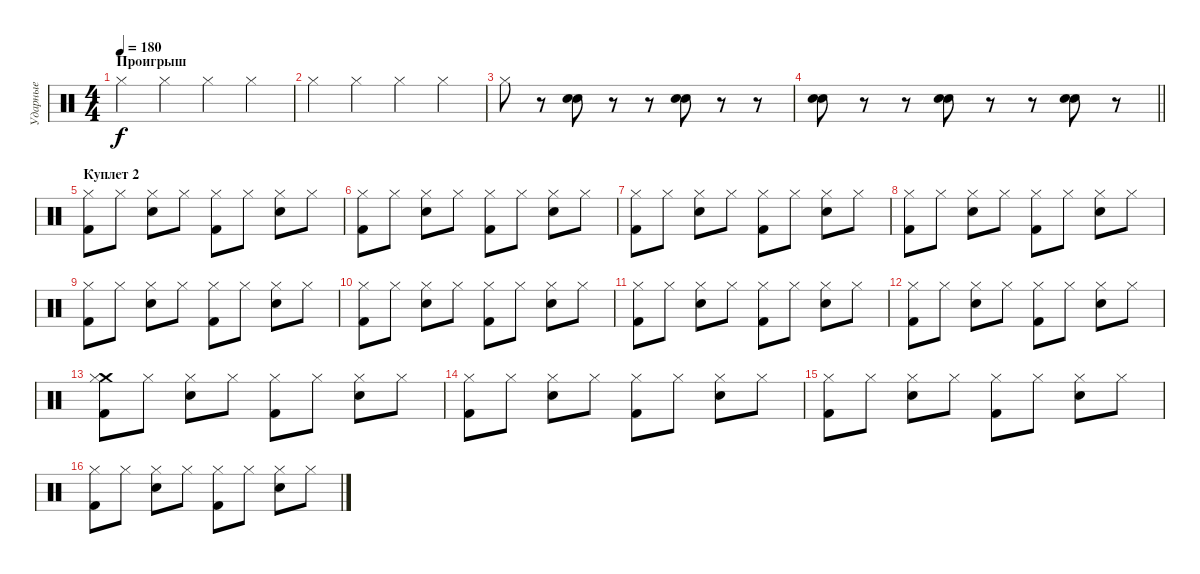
\track ("Ударные" "Ударные") {instrument percussion}
\staff {score}
\articulation defaults
\ts (4 4)
\section ("" "Проигрыш")
\tempo 180
\clef neutral
\ks c "Hi-Hat (closed)".4{dy f} "Hi-Hat (closed)".4 "Hi-Hat (closed)".4 "Hi-Hat (closed)".4
|
"Hi-Hat (closed)".4 "Hi-Hat (closed)".4 "Hi-Hat (closed)".4 "Hi-Hat (closed)".4 |
"Hi-Hat (closed)".8 r.8 ("Electric Snare (hit)" "Electric Snare (hit)").8 r.8 r.8 ("Electric Snare (hit)" "Electric Snare (hit)").8 r.8 r.8 |
\barLineRight lightlight
("Electric Snare (hit)" "Electric Snare (hit)").8 r.8 r.8 ("Electric Snare (hit)" "Electric Snare (hit)").8 r.8 r.8 ("Electric Snare (hit)" "Electric Snare (hit)").8 r.8 |
\section ("" "Куплет 2")
("Hi-Hat (closed)" "Kick (hit) 2").8 "Hi-Hat (closed)".8 ("Hi-Hat (closed)" "Electric Snare (hit)").8 "Hi-Hat (closed)".8 ("Hi-Hat (closed)" "Kick (hit) 2").8 "Hi-Hat (closed)".8 ("Hi-Hat (closed)" "Electric Snare (hit)").8 "Hi-Hat (closed)".8 |
("Hi-Hat (closed)" "Kick (hit) 2").8 "Hi-Hat (closed)".8 ("Hi-Hat (closed)" "Electric Snare (hit)").8 "Hi-Hat (closed)".8 ("Hi-Hat (closed)" "Kick (hit) 2").8 "Hi-Hat (closed)".8 ("Hi-Hat (closed)" "Electric Snare (hit)").8 "Hi-Hat (closed)".8 |
("Hi-Hat (closed)" "Kick (hit) 2").8 "Hi-Hat (closed)".8 ("Hi-Hat (closed)" "Electric Snare (hit)").8 "Hi-Hat (closed)".8 ("Hi-Hat (closed)" "Kick (hit) 2").8 "Hi-Hat (closed)".8 ("Hi-Hat (closed)" "Electric Snare (hit)").8 "Hi-Hat (closed)".8 |
("Hi-Hat (closed)" "Kick (hit) 2").8 "Hi-Hat (closed)".8 ("Hi-Hat (closed)" "Electric Snare (hit)").8 "Hi-Hat (closed)".8 ("Hi-Hat (closed)" "Kick (hit) 2").8 "Hi-Hat (closed)".8 ("Hi-Hat (closed)" "Electric Snare (hit)").8 "Hi-Hat (closed)".8 |
("Hi-Hat (closed)" "Kick (hit) 2").8 "Hi-Hat (closed)".8 ("Hi-Hat (closed)" "Electric Snare (hit)").8 "Hi-Hat (closed)".8 ("Hi-Hat (closed)" "Kick (hit) 2").8 "Hi-Hat (closed)".8 ("Hi-Hat (closed)" "Electric Snare (hit)").8 "Hi-Hat (closed)".8 |
("Hi-Hat (closed)" "Kick (hit) 2").8 "Hi-Hat (closed)".8 ("Hi-Hat (closed)" "Electric Snare (hit)").8 "Hi-Hat (closed)".8 ("Hi-Hat (closed)" "Kick (hit) 2").8 "Hi-Hat (closed)".8 ("Hi-Hat (closed)" "Electric Snare (hit)").8 "Hi-Hat (closed)".8 |
("Hi-Hat (closed)" "Kick (hit) 2").8 "Hi-Hat (closed)".8 ("Hi-Hat (closed)" "Electric Snare (hit)").8 "Hi-Hat (closed)".8 ("Hi-Hat (closed)" "Kick (hit) 2").8 "Hi-Hat (closed)".8 ("Hi-Hat (closed)" "Electric Snare (hit)").8 "Hi-Hat (closed)".8 |
("Hi-Hat (closed)" "Kick (hit) 2").8 "Hi-Hat (closed)".8 ("Hi-Hat (closed)" "Electric Snare (hit)").8 "Hi-Hat (closed)".8 ("Hi-Hat (closed)" "Kick (hit) 2").8 "Hi-Hat (closed)".8 ("Hi-Hat (closed)" "Electric Snare (hit)").8 "Hi-Hat (closed)".8 |
("Crash medium (hit)" "Hi-Hat (closed)" "Kick (hit) 2").8 "Hi-Hat (closed)".8 ("Hi-Hat (closed)" "Electric Snare (hit)").8 "Hi-Hat (closed)".8 ("Hi-Hat (closed)" "Kick (hit) 2").8 "Hi-Hat (closed)".8 ("Hi-Hat (closed)" "Electric Snare (hit)").8 "Hi-Hat (closed)".8 |
("Hi-Hat (closed)" "Kick (hit) 2").8 "Hi-Hat (closed)".8 ("Hi-Hat (closed)" "Electric Snare (hit)").8 "Hi-Hat (closed)".8 ("Hi-Hat (closed)" "Kick (hit) 2").8 "Hi-Hat (closed)".8 ("Hi-Hat (closed)" "Electric Snare (hit)").8 "Hi-Hat (closed)".8 |
("Hi-Hat (closed)" "Kick (hit) 2").8 "Hi-Hat (closed)".8 ("Hi-Hat (closed)" "Electric Snare (hit)").8 "Hi-Hat (closed)".8 ("Hi-Hat (closed)" "Kick (hit) 2").8 "Hi-Hat (closed)".8 ("Hi-Hat (closed)" "Electric Snare (hit)").8 "Hi-Hat (closed)".8 |
("Hi-Hat (closed)" "Kick (hit) 2").8 "Hi-Hat (closed)".8 ("Hi-Hat (closed)" "Electric Snare (hit)").8 "Hi-Hat (closed)".8 ("Hi-Hat (closed)" "Kick (hit) 2").8 "Hi-Hat (closed)".8 ("Hi-Hat (closed)" "Electric Snare (hit)").8 "Hi-Hat (closed)".8
